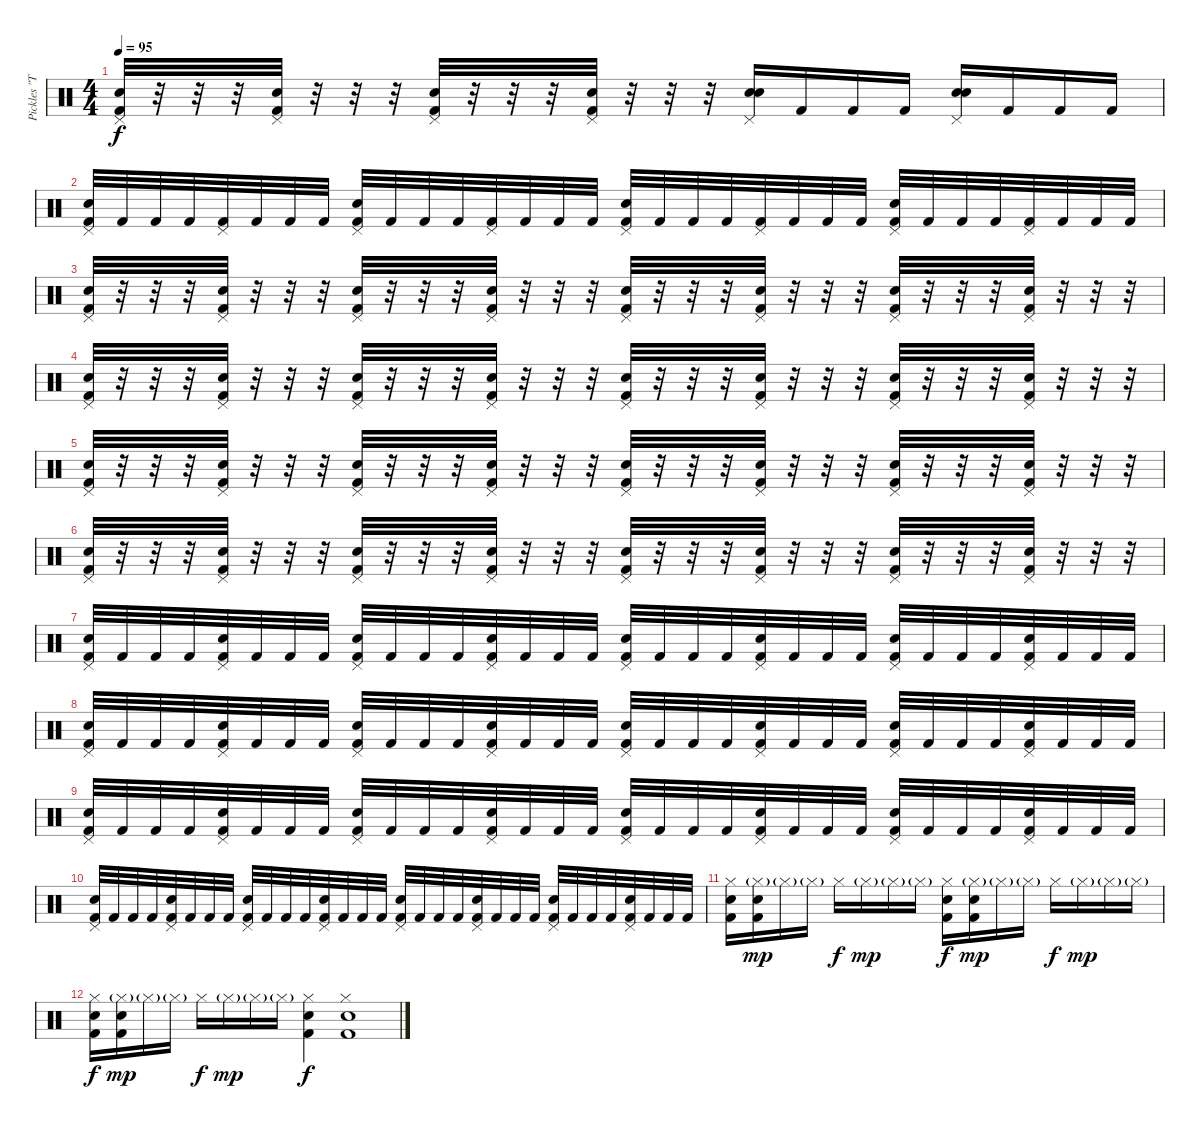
\track ("Pickles \"The Drummer\"" "Pickles \"T") {instrument percussion}
\staff {score}
\articulation defaults
\ts (4 4)
\tempo 95
\clef neutral
\ks c
("Electric Snare (hit)" "Pedal Hi-Hat (hit)" "Kick (hit) 2").32{dy f} r.32 r.32 r.32 ("Electric Snare (hit)" "Pedal Hi-Hat (hit)" "Kick (hit) 2").32 r.32 r.32 r.32 ("Electric Snare (hit)" "Pedal Hi-Hat (hit)" "Kick (hit) 2").32 r.32 r.32 r.32 ("Electric Snare (hit)" "Pedal Hi-Hat (hit)" "Kick (hit) 2").32 r.32 r.32 r.32 ("Electric Snare (hit)" "Pedal Hi-Hat (hit)" "Snare (hit) 2").16 "Kick (hit) 2".16 "Kick (hit) 2".16 "Kick (hit) 2".16 ("Electric Snare (hit)" "Pedal Hi-Hat (hit)" "Snare (hit) 2").16 "Kick (hit) 2".16 "Kick (hit) 2".16 "Kick (hit) 2".16 |
("Pedal Hi-Hat (hit)" "Electric Snare (hit)" "Kick (hit) 2").32 "Kick (hit) 2".32 "Kick (hit) 2".32 "Kick (hit) 2".32 ("Pedal Hi-Hat (hit)" "Kick (hit) 2").32 "Kick (hit) 2".32 "Kick (hit) 2".32 "Kick (hit) 2".32 ("Pedal Hi-Hat (hit)" "Electric Snare (hit)" "Kick (hit) 2").32 "Kick (hit) 2".32 "Kick (hit) 2".32 "Kick (hit) 2".32 ("Pedal Hi-Hat (hit)" "Kick (hit) 2").32 "Kick (hit) 2".32 "Kick (hit) 2".32 "Kick (hit) 2".32 ("Pedal Hi-Hat (hit)" "Electric Snare (hit)" "Kick (hit) 2").32 "Kick (hit) 2".32 "Kick (hit) 2".32 "Kick (hit) 2".32 ("Pedal Hi-Hat (hit)" "Kick (hit) 2").32 "Kick (hit) 2".32 "Kick (hit) 2".32 "Kick (hit) 2".32 ("Pedal Hi-Hat (hit)" "Electric Snare (hit)" "Kick (hit) 2").32 "Kick (hit) 2".32 "Kick (hit) 2".32 "Kick (hit) 2".32 ("Pedal Hi-Hat (hit)" "Kick (hit) 2").32 "Kick (hit) 2".32 "Kick (hit) 2".32 "Kick (hit) 2".32 |
("Electric Snare (hit)" "Pedal Hi-Hat (hit)" "Kick (hit) 2").32 r.32 r.32 r.32 ("Electric Snare (hit)" "Pedal Hi-Hat (hit)" "Kick (hit) 2").32 r.32 r.32 r.32 ("Electric Snare (hit)" "Pedal Hi-Hat (hit)" "Kick (hit) 2").32 r.32 r.32 r.32 ("Electric Snare (hit)" "Pedal Hi-Hat (hit)" "Kick (hit) 2").32 r.32 r.32 r.32 ("Electric Snare (hit)" "Pedal Hi-Hat (hit)" "Kick (hit) 2").32 r.32 r.32 r.32 ("Electric Snare (hit)" "Pedal Hi-Hat (hit)" "Kick (hit) 2").32 r.32 r.32 r.32 ("Electric Snare (hit)" "Pedal Hi-Hat (hit)" "Kick (hit) 2").32 r.32 r.32 r.32 ("Electric Snare (hit)" "Pedal Hi-Hat (hit)" "Kick (hit) 2").32 r.32 r.32 r.32 |
("Electric Snare (hit)" "Pedal Hi-Hat (hit)" "Kick (hit) 2").32 r.32 r.32 r.32 ("Electric Snare (hit)" "Pedal Hi-Hat (hit)" "Kick (hit) 2").32 r.32 r.32 r.32 ("Electric Snare (hit)" "Pedal Hi-Hat (hit)" "Kick (hit) 2").32 r.32 r.32 r.32 ("Electric Snare (hit)" "Pedal Hi-Hat (hit)" "Kick (hit) 2").32 r.32 r.32 r.32 ("Electric Snare (hit)" "Pedal Hi-Hat (hit)" "Kick (hit) 2").32 r.32 r.32 r.32 ("Electric Snare (hit)" "Pedal Hi-Hat (hit)" "Kick (hit) 2").32 r.32 r.32 r.32 ("Electric Snare (hit)" "Pedal Hi-Hat (hit)" "Kick (hit) 2").32 r.32 r.32 r.32 ("Electric Snare (hit)" "Pedal Hi-Hat (hit)" "Kick (hit) 2").32 r.32 r.32 r.32 |
("Electric Snare (hit)" "Pedal Hi-Hat (hit)" "Kick (hit) 2").32 r.32 r.32 r.32 ("Electric Snare (hit)" "Pedal Hi-Hat (hit)" "Kick (hit) 2").32 r.32 r.32 r.32 ("Electric Snare (hit)" "Pedal Hi-Hat (hit)" "Kick (hit) 2").32 r.32 r.32 r.32 ("Electric Snare (hit)" "Pedal Hi-Hat (hit)" "Kick (hit) 2").32 r.32 r.32 r.32 ("Electric Snare (hit)" "Pedal Hi-Hat (hit)" "Kick (hit) 2").32 r.32 r.32 r.32 ("Electric Snare (hit)" "Pedal Hi-Hat (hit)" "Kick (hit) 2").32 r.32 r.32 r.32 ("Electric Snare (hit)" "Pedal Hi-Hat (hit)" "Kick (hit) 2").32 r.32 r.32 r.32 ("Electric Snare (hit)" "Pedal Hi-Hat (hit)" "Kick (hit) 2").32 r.32 r.32 r.32 |
("Electric Snare (hit)" "Pedal Hi-Hat (hit)" "Kick (hit) 2").32 r.32 r.32 r.32 ("Electric Snare (hit)" "Pedal Hi-Hat (hit)" "Kick (hit) 2").32 r.32 r.32 r.32 ("Electric Snare (hit)" "Pedal Hi-Hat (hit)" "Kick (hit) 2").32 r.32 r.32 r.32 ("Electric Snare (hit)" "Pedal Hi-Hat (hit)" "Kick (hit) 2").32 r.32 r.32 r.32 ("Electric Snare (hit)" "Pedal Hi-Hat (hit)" "Kick (hit) 2").32 r.32 r.32 r.32 ("Electric Snare (hit)" "Pedal Hi-Hat (hit)" "Kick (hit) 2").32 r.32 r.32 r.32 ("Electric Snare (hit)" "Pedal Hi-Hat (hit)" "Kick (hit) 2").32 r.32 r.32 r.32 ("Electric Snare (hit)" "Pedal Hi-Hat (hit)" "Kick (hit) 2").32 r.32 r.32 r.32 |
("Pedal Hi-Hat (hit)" "Electric Snare (hit)" "Kick (hit) 2").32 "Kick (hit) 2".32 "Kick (hit) 2".32 "Kick (hit) 2".32 ("Pedal Hi-Hat (hit)" "Electric Snare (hit)" "Kick (hit) 2").32 "Kick (hit) 2".32 "Kick (hit) 2".32 "Kick (hit) 2".32 ("Pedal Hi-Hat (hit)" "Electric Snare (hit)" "Kick (hit) 2").32 "Kick (hit) 2".32 "Kick (hit) 2".32 "Kick (hit) 2".32 ("Pedal Hi-Hat (hit)" "Electric Snare (hit)" "Kick (hit) 2").32 "Kick (hit) 2".32 "Kick (hit) 2".32 "Kick (hit) 2".32 ("Pedal Hi-Hat (hit)" "Electric Snare (hit)" "Kick (hit) 2").32 "Kick (hit) 2".32 "Kick (hit) 2".32 "Kick (hit) 2".32 ("Pedal Hi-Hat (hit)" "Electric Snare (hit)" "Kick (hit) 2").32 "Kick (hit) 2".32 "Kick (hit) 2".32 "Kick (hit) 2".32 ("Pedal Hi-Hat (hit)" "Electric Snare (hit)" "Kick (hit) 2").32 "Kick (hit) 2".32 "Kick (hit) 2".32 "Kick (hit) 2".32 ("Pedal Hi-Hat (hit)" "Electric Snare (hit)" "Kick (hit) 2").32 "Kick (hit) 2".32 "Kick (hit) 2".32 "Kick (hit) 2".32 |
("Pedal Hi-Hat (hit)" "Electric Snare (hit)" "Kick (hit) 2").32 "Kick (hit) 2".32 "Kick (hit) 2".32 "Kick (hit) 2".32 ("Pedal Hi-Hat (hit)" "Electric Snare (hit)" "Kick (hit) 2").32 "Kick (hit) 2".32 "Kick (hit) 2".32 "Kick (hit) 2".32 ("Pedal Hi-Hat (hit)" "Electric Snare (hit)" "Kick (hit) 2").32 "Kick (hit) 2".32 "Kick (hit) 2".32 "Kick (hit) 2".32 ("Pedal Hi-Hat (hit)" "Electric Snare (hit)" "Kick (hit) 2").32 "Kick (hit) 2".32 "Kick (hit) 2".32 "Kick (hit) 2".32 ("Pedal Hi-Hat (hit)" "Electric Snare (hit)" "Kick (hit) 2").32 "Kick (hit) 2".32 "Kick (hit) 2".32 "Kick (hit) 2".32 ("Pedal Hi-Hat (hit)" "Electric Snare (hit)" "Kick (hit) 2").32 "Kick (hit) 2".32 "Kick (hit) 2".32 "Kick (hit) 2".32 ("Pedal Hi-Hat (hit)" "Electric Snare (hit)" "Kick (hit) 2").32 "Kick (hit) 2".32 "Kick (hit) 2".32 "Kick (hit) 2".32 ("Pedal Hi-Hat (hit)" "Electric Snare (hit)" "Kick (hit) 2").32 "Kick (hit) 2".32 "Kick (hit) 2".32 "Kick (hit) 2".32 |
("Pedal Hi-Hat (hit)" "Electric Snare (hit)" "Kick (hit) 2").32 "Kick (hit) 2".32 "Kick (hit) 2".32 "Kick (hit) 2".32 ("Pedal Hi-Hat (hit)" "Electric Snare (hit)" "Kick (hit) 2").32 "Kick (hit) 2".32 "Kick (hit) 2".32 "Kick (hit) 2".32 ("Pedal Hi-Hat (hit)" "Electric Snare (hit)" "Kick (hit) 2").32 "Kick (hit) 2".32 "Kick (hit) 2".32 "Kick (hit) 2".32 ("Pedal Hi-Hat (hit)" "Electric Snare (hit)" "Kick (hit) 2").32 "Kick (hit) 2".32 "Kick (hit) 2".32 "Kick (hit) 2".32 ("Pedal Hi-Hat (hit)" "Electric Snare (hit)" "Kick (hit) 2").32 "Kick (hit) 2".32 "Kick (hit) 2".32 "Kick (hit) 2".32 ("Pedal Hi-Hat (hit)" "Electric Snare (hit)" "Kick (hit) 2").32 "Kick (hit) 2".32 "Kick (hit) 2".32 "Kick (hit) 2".32 ("Pedal Hi-Hat (hit)" "Electric Snare (hit)" "Kick (hit) 2").32 "Kick (hit) 2".32 "Kick (hit) 2".32 "Kick (hit) 2".32 ("Pedal Hi-Hat (hit)" "Electric Snare (hit)" "Kick (hit) 2").32 "Kick (hit) 2".32 "Kick (hit) 2".32 "Kick (hit) 2".32 |
("Pedal Hi-Hat (hit)" "Electric Snare (hit)" "Kick (hit) 2").32 "Kick (hit) 2".32 "Kick (hit) 2".32 "Kick (hit) 2".32 ("Pedal Hi-Hat (hit)" "Electric Snare (hit)" "Kick (hit) 2").32 "Kick (hit) 2".32 "Kick (hit) 2".32 "Kick (hit) 2".32 ("Pedal Hi-Hat (hit)" "Electric Snare (hit)" "Kick (hit) 2").32 "Kick (hit) 2".32 "Kick (hit) 2".32 "Kick (hit) 2".32 ("Pedal Hi-Hat (hit)" "Electric Snare (hit)" "Kick (hit) 2").32 "Kick (hit) 2".32 "Kick (hit) 2".32 "Kick (hit) 2".32 ("Pedal Hi-Hat (hit)" "Electric Snare (hit)" "Kick (hit) 2").32 "Kick (hit) 2".32 "Kick (hit) 2".32 "Kick (hit) 2".32 ("Pedal Hi-Hat (hit)" "Electric Snare (hit)" "Kick (hit) 2").32 "Kick (hit) 2".32 "Kick (hit) 2".32 "Kick (hit) 2".32 ("Pedal Hi-Hat (hit)" "Electric Snare (hit)" "Kick (hit) 2").32 "Kick (hit) 2".32 "Kick (hit) 2".32 "Kick (hit) 2".32 ("Pedal Hi-Hat (hit)" "Electric Snare (hit)" "Kick (hit) 2").32 "Kick (hit) 2".32 "Kick (hit) 2".32 "Kick (hit) 2".32 |
("Hi-Hat (closed)" "Kick (hit) 2" "Snare (hit) 2").16 ("Hi-Hat (closed)"{g} "Kick (hit) 2" "Snare (hit) 2").16{dy mp} "Hi-Hat (closed)"{g}.16 "Hi-Hat (closed)"{g}.16 "Hi-Hat (closed)".16{dy f} "Hi-Hat (closed)"{g}.16{dy mp} "Hi-Hat (closed)"{g}.16 "Hi-Hat (closed)"{g}.16 ("Hi-Hat (closed)" "Kick (hit) 2" "Snare (hit) 2").16{dy f} ("Hi-Hat (closed)"{g} "Kick (hit) 2" "Snare (hit) 2").16{dy mp} "Hi-Hat (closed)"{g}.16 "Hi-Hat (closed)"{g}.16 "Hi-Hat (closed)".16{dy f} "Hi-Hat (closed)"{g}.16{dy mp} "Hi-Hat (closed)"{g}.16 "Hi-Hat (closed)"{g}.16 |
("Hi-Hat (closed)" "Kick (hit) 2" "Snare (hit) 2").16{dy f} ("Hi-Hat (closed)"{g} "Kick (hit) 2" "Snare (hit) 2").16{dy mp} "Hi-Hat (closed)"{g}.16 "Hi-Hat (closed)"{g}.16 "Hi-Hat (closed)".16{dy f} "Hi-Hat (closed)"{g}.16{dy mp} "Hi-Hat (closed)"{g}.16 "Hi-Hat (closed)"{g}.16 ("Hi-Hat (closed)" "Kick (hit) 2" "Snare (hit) 2").4{dy f} ("Hi-Hat (closed)" "Kick (hit) 2" "Snare (hit) 2").1
